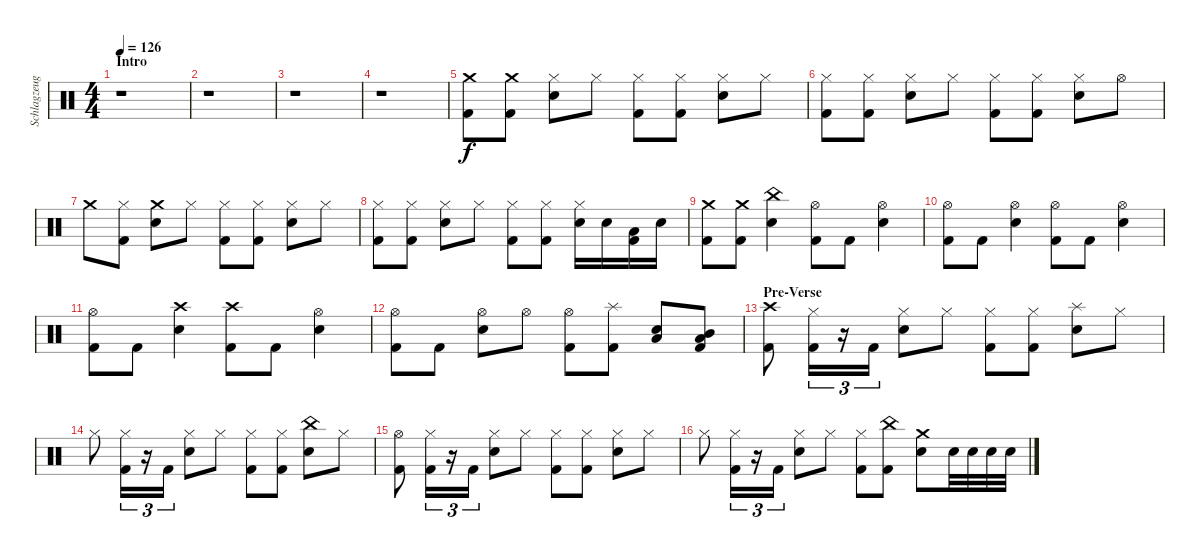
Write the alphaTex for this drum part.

\track ("Schlagzeug" "Schlagzeug") {instrument percussion}
\staff {score}
\articulation defaults
\ts (4 4)
\section ("" "Intro")
\tempo 126
\clef neutral
\ks c
r.1{dy f} |
r.1 |
r.1 |
r.1 |
("Crash medium (hit)" "Kick (hit) 2").8 ("Crash medium (hit)" "Kick (hit) 2").8 ("Hi-Hat (closed)" "Snare (hit) 2").8 "Hi-Hat (closed)".8 ("Hi-Hat (closed)" "Kick (hit) 2").8 ("Hi-Hat (closed)" "Kick (hit) 2").8 ("Hi-Hat (closed)" "Snare (hit) 2").8 "Hi-Hat (closed)".8 |
("Hi-Hat (closed)" "Kick (hit) 2").8 ("Hi-Hat (closed)" "Kick (hit) 2").8 ("Hi-Hat (closed)" "Snare (hit) 2").8 "Hi-Hat (closed)".8 ("Hi-Hat (closed)" "Kick (hit) 2").8 ("Hi-Hat (closed)" "Kick (hit) 2").8 ("Hi-Hat (closed)" "Snare (hit) 2").8 "Hi-Hat (open)".8 |
"Crash medium (hit)".8 ("Hi-Hat (closed)" "Kick (hit) 2").8 ("Crash medium (hit)" "Snare (hit) 2").8 "Hi-Hat (closed)".8 ("Hi-Hat (closed)" "Kick (hit) 2").8 ("Hi-Hat (closed)" "Kick (hit) 2").8 ("Hi-Hat (closed)" "Snare (hit) 2").8 "Hi-Hat (closed)".8 |
("Hi-Hat (closed)" "Kick (hit) 2").8 ("Hi-Hat (closed)" "Kick (hit) 2").8 ("Hi-Hat (closed)" "Snare (hit) 2").8 "Hi-Hat (closed)".8 ("Hi-Hat (closed)" "Kick (hit) 2").8 ("Hi-Hat (closed)" "Kick (hit) 2").8 ("Hi-Hat (closed)" "Snare (hit) 2").16 "Snare (hit) 2".16 ("Low Tom (hit)" "Kick (hit) 2").16 "Snare (hit) 2".16 |
("Crash medium (hit)" "Kick (hit) 2").8 ("Crash medium (hit)" "Kick (hit) 2").8 ("China (hit)" "Snare (hit) 2").4 ("Hi-Hat (open)" "Kick (hit) 2").8 "Kick (hit) 2".8 ("Hi-Hat (open)" "Snare (hit) 2").4 |
("Hi-Hat (open)" "Kick (hit) 2").8 "Kick (hit) 2".8 ("Hi-Hat (open)" "Snare (hit) 2").4 ("Hi-Hat (open)" "Kick (hit) 2").8 "Kick (hit) 2".8 ("Hi-Hat (open)" "Snare (hit) 2").4 |
("Hi-Hat (open)" "Kick (hit) 2").8 "Kick (hit) 2".8 ("Crash high (hit)" "Snare (hit) 2").4 ("Crash high (hit)" "Kick (hit) 2").8 "Kick (hit) 2".8 ("Hi-Hat (open)" "Snare (hit) 2").4 |
("Hi-Hat (open)" "Kick (hit) 2").8 "Kick (hit) 2".8 ("Hi-Hat (open)" "Snare (hit) 2").8 "Hi-Hat (open)".8 ("Hi-Hat (open)" "Kick (hit) 2").8 ("Splash (hit)" "Kick (hit) 2").8 ("Snare (hit) 2" "Low Tom (hit)").8 ("Mid Tom (hit)" "Low Tom (hit)" "Kick (hit) 2").8 |
\section ("" "Pre-Verse")
("Crash high (hit)" "Kick (hit) 2").8 ("Hi-Hat (closed)" "Kick (hit) 2").16{tu (3 2)} r.16{tu (3 2)} "Kick (hit) 2".16{tu (3 2)} ("Hi-Hat (closed)" "Snare (hit) 2").8 "Hi-Hat (closed)".8 ("Hi-Hat (closed)" "Kick (hit) 2").8 ("Hi-Hat (closed)" "Kick (hit) 2").8 ("Splash (hit)" "Snare (hit) 2").8 "Hi-Hat (closed)".8 |
"Hi-Hat (closed)".8 ("Hi-Hat (closed)" "Kick (hit) 2").16{tu (3 2)} r.16{tu (3 2)} "Kick (hit) 2".16{tu (3 2)} ("Hi-Hat (closed)" "Snare (hit) 2").8 "Hi-Hat (closed)".8 ("Hi-Hat (closed)" "Kick (hit) 2").8 ("Hi-Hat (closed)" "Kick (hit) 2").8 ("China (hit)" "Snare (hit) 2").8 "Hi-Hat (closed)".8 |
("Hi-Hat (open)" "Kick (hit) 2").8 ("Hi-Hat (closed)" "Kick (hit) 2").16{tu (3 2)} r.16{tu (3 2)} "Kick (hit) 2".16{tu (3 2)} ("Hi-Hat (closed)" "Snare (hit) 2").8 "Hi-Hat (closed)".8 ("Hi-Hat (closed)" "Kick (hit) 2").8 ("Hi-Hat (closed)" "Kick (hit) 2").8 ("Hi-Hat (closed)" "Snare (hit) 2").8 "Hi-Hat (closed)".8 |
"Hi-Hat (closed)".8 ("Hi-Hat (closed)" "Kick (hit) 2").16{tu (3 2)} r.16{tu (3 2)} "Kick (hit) 2".16{tu (3 2)} ("Hi-Hat (closed)" "Snare (hit) 2").8 "Hi-Hat (closed)".8 ("Hi-Hat (closed)" "Kick (hit) 2").8 ("China (hit)" "Kick (hit) 2").8 ("Crash medium (hit)" "Snare (hit) 2").8 "Snare (hit) 2".32 "Snare (hit) 2".32 "Snare (hit) 2".32 "Snare (hit) 2".32
